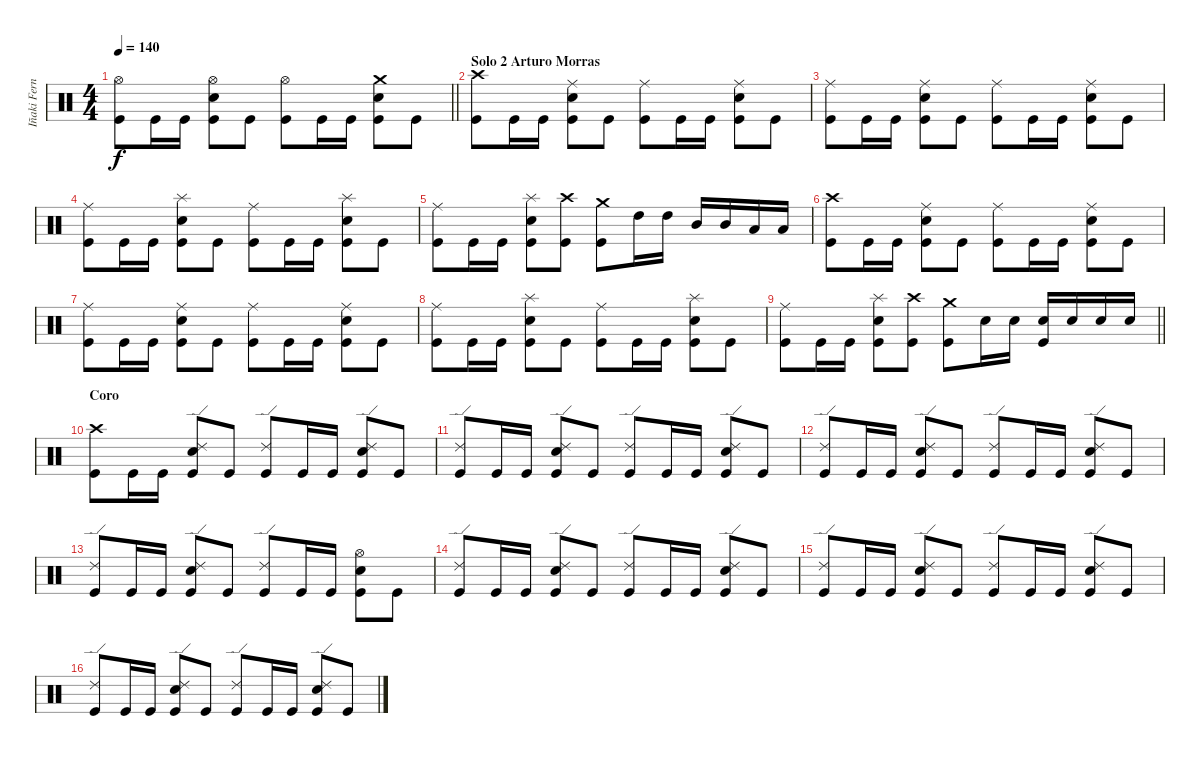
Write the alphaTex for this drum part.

\track ("Iñaki Fernández" "Iñaki Fern") {instrument percussion}
\staff {score}
\articulation defaults
\ts (4 4)
\tempo 140
\clef neutral
\barLineRight lightlight
\ks c
("Hi-Hat (open)" "Kick (hit)").8{dy f} "Kick (hit)".16 "Kick (hit)".16 ("Hi-Hat (open)" "Snare (hit) 2" "Kick (hit)").8 "Kick (hit)".8 ("Hi-Hat (open)" "Kick (hit)").8 "Kick (hit)".16 "Kick (hit)".16 ("Snare (hit) 2" "Crash medium (hit)" "Kick (hit)").8 "Kick (hit)".8 |
\section ("" "Solo 2 Arturo Morras")
("Crash high (hit)" "Kick (hit)").8 "Kick (hit)".16 "Kick (hit)".16 ("Ride (middle)" "Snare (hit) 2" "Kick (hit)").8 "Kick (hit)".8 ("Ride (middle)" "Kick (hit)").8 "Kick (hit)".16 "Kick (hit)".16 ("Ride (middle)" "Snare (hit) 2" "Kick (hit)").8 "Kick (hit)".8 |
("Ride (middle)" "Kick (hit)").8 "Kick (hit)".16 "Kick (hit)".16 ("Ride (middle)" "Snare (hit) 2" "Kick (hit)").8 "Kick (hit)".8 ("Ride (middle)" "Kick (hit)").8 "Kick (hit)".16 "Kick (hit)".16 ("Ride (middle)" "Snare (hit) 2" "Kick (hit)").8 "Kick (hit)".8 |
("Ride (middle)" "Kick (hit)").8 "Kick (hit)".16 "Kick (hit)".16 ("Snare (hit) 2" "Splash (hit)" "Kick (hit)").8 "Kick (hit)".8 ("Ride (middle)" "Kick (hit)").8 "Kick (hit)".16 "Kick (hit)".16 ("Snare (hit) 2" "Splash (hit)" "Kick (hit)").8 "Kick (hit)".8 |
("Ride (middle)" "Kick (hit)").8 "Kick (hit)".16 "Kick (hit)".16 ("Snare (hit) 2" "Splash (hit)" "Kick (hit)").8 ("Crash high (hit)" "Kick (hit)").8 ("Crash medium (hit)" "Kick (hit)").8 "High Tom (hit)".16 "High Tom (hit)".16 "Mid Tom (hit)".16 "Mid Tom (hit)".16 "Low Tom (hit)".16 "Low Tom (hit)".16 |
("Crash high (hit)" "Kick (hit)").8 "Kick (hit)".16 "Kick (hit)".16 ("Ride (middle)" "Snare (hit) 2" "Kick (hit)").8 "Kick (hit)".8 ("Ride (middle)" "Kick (hit)").8 "Kick (hit)".16 "Kick (hit)".16 ("Ride (middle)" "Snare (hit) 2" "Kick (hit)").8 "Kick (hit)".8 |
("Ride (middle)" "Kick (hit)").8 "Kick (hit)".16 "Kick (hit)".16 ("Ride (middle)" "Snare (hit) 2" "Kick (hit)").8 "Kick (hit)".8 ("Ride (middle)" "Kick (hit)").8 "Kick (hit)".16 "Kick (hit)".16 ("Ride (middle)" "Snare (hit) 2" "Kick (hit)").8 "Kick (hit)".8 |
("Ride (middle)" "Kick (hit)").8 "Kick (hit)".16 "Kick (hit)".16 ("Snare (hit) 2" "Splash (hit)" "Kick (hit)").8 "Kick (hit)".8 ("Ride (middle)" "Kick (hit)").8 "Kick (hit)".16 "Kick (hit)".16 ("Snare (hit) 2" "Splash (hit)" "Kick (hit)").8 "Kick (hit)".8 |
\barLineRight lightlight
("Ride (middle)" "Kick (hit)").8 "Kick (hit)".16 "Kick (hit)".16 ("Snare (hit) 2" "Splash (hit)" "Kick (hit)").8 ("Crash high (hit)" "Kick (hit)").8 ("Crash medium (hit)" "Kick (hit)").8 "Snare (hit) 2".16 "Snare (hit) 2".16 ("Snare (hit) 2" "Kick (hit)").16 "Snare (hit) 2".16 "Snare (hit) 2".16 "Snare (hit) 2".16 |
\section ("" "Coro")
("Crash high (hit)" "Kick (hit)").8 "Kick (hit)".16 "Kick (hit)".16 ("Ride (edge) 2" "Snare (hit) 2" "Kick (hit)").8 "Kick (hit)".8 ("Ride (edge) 2" "Kick (hit)").8 "Kick (hit)".16 "Kick (hit)".16 ("Ride (edge) 2" "Snare (hit) 2" "Kick (hit)").8 "Kick (hit)".8 |
("Ride (edge) 2" "Kick (hit)").8 "Kick (hit)".16 "Kick (hit)".16 ("Ride (edge) 2" "Snare (hit) 2" "Kick (hit)").8 "Kick (hit)".8 ("Ride (edge) 2" "Kick (hit)").8 "Kick (hit)".16 "Kick (hit)".16 ("Ride (edge) 2" "Snare (hit) 2" "Kick (hit)").8 "Kick (hit)".8 |
("Ride (edge) 2" "Kick (hit)").8 "Kick (hit)".16 "Kick (hit)".16 ("Ride (edge) 2" "Snare (hit) 2" "Kick (hit)").8 "Kick (hit)".8 ("Ride (edge) 2" "Kick (hit)").8 "Kick (hit)".16 "Kick (hit)".16 ("Ride (edge) 2" "Snare (hit) 2" "Kick (hit)").8 "Kick (hit)".8 |
("Ride (edge) 2" "Kick (hit)").8 "Kick (hit)".16 "Kick (hit)".16 ("Ride (edge) 2" "Snare (hit) 2" "Kick (hit)").8 "Kick (hit)".8 ("Ride (edge) 2" "Kick (hit)").8 "Kick (hit)".16 "Kick (hit)".16 ("Hi-Hat (open)" "Snare (hit) 2" "Kick (hit)").8 "Kick (hit)".8 |
("Ride (edge) 2" "Kick (hit)").8 "Kick (hit)".16 "Kick (hit)".16 ("Ride (edge) 2" "Snare (hit) 2" "Kick (hit)").8 "Kick (hit)".8 ("Ride (edge) 2" "Kick (hit)").8 "Kick (hit)".16 "Kick (hit)".16 ("Ride (edge) 2" "Snare (hit) 2" "Kick (hit)").8 "Kick (hit)".8 |
("Ride (edge) 2" "Kick (hit)").8 "Kick (hit)".16 "Kick (hit)".16 ("Ride (edge) 2" "Snare (hit) 2" "Kick (hit)").8 "Kick (hit)".8 ("Ride (edge) 2" "Kick (hit)").8 "Kick (hit)".16 "Kick (hit)".16 ("Ride (edge) 2" "Snare (hit) 2" "Kick (hit)").8 "Kick (hit)".8 |
("Ride (edge) 2" "Kick (hit)").8 "Kick (hit)".16 "Kick (hit)".16 ("Ride (edge) 2" "Snare (hit) 2" "Kick (hit)").8 "Kick (hit)".8 ("Ride (edge) 2" "Kick (hit)").8 "Kick (hit)".16 "Kick (hit)".16 ("Ride (edge) 2" "Snare (hit) 2" "Kick (hit)").8 "Kick (hit)".8
